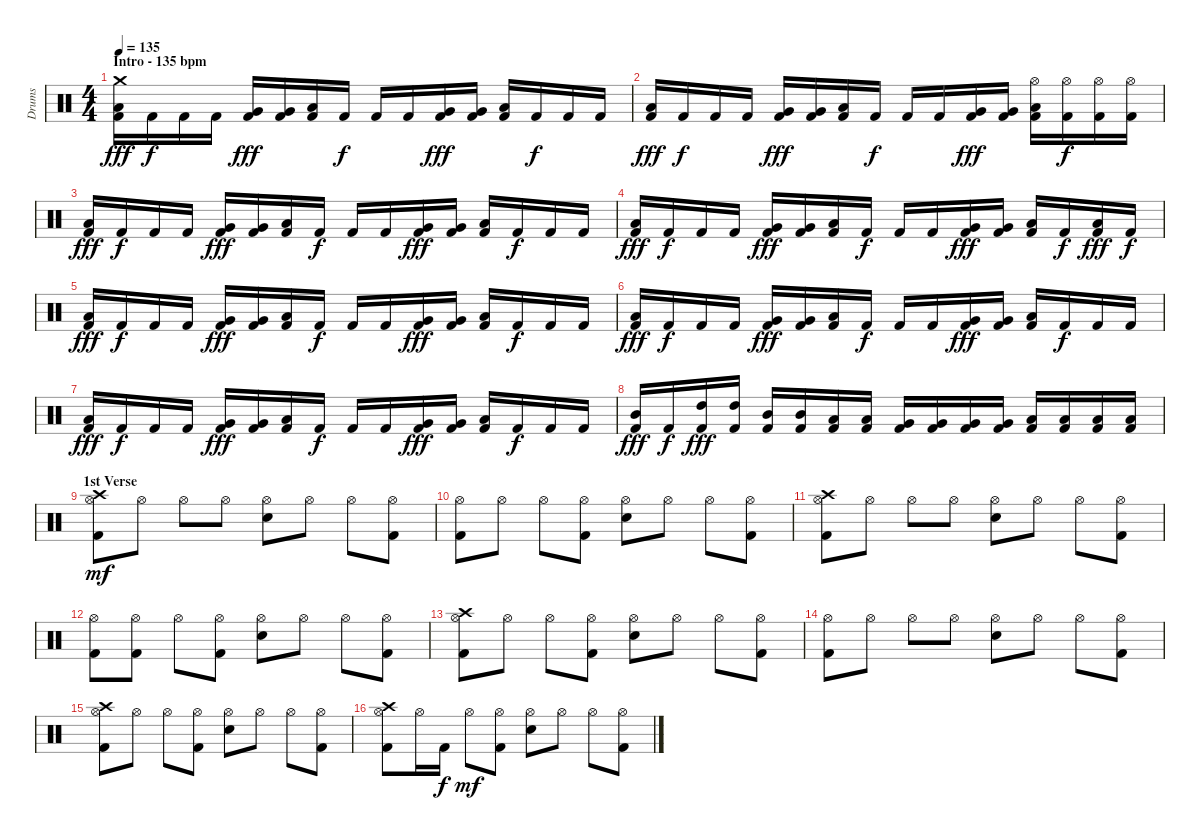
\track ("Drums" "Drums") {instrument percussion}
\staff {score}
\articulation defaults
\ts (4 4)
\section ("" "Intro - 135 bpm")
\tempo 135
\clef neutral
\ks c
("Kick (hit) 2" "Low Tom (hit)" "Crash medium (hit)").16{dy fff} "Kick (hit) 2".16{dy f} "Kick (hit) 2".16 "Kick (hit) 2".16 ("Kick (hit) 2" "Very Low Tom (hit)").16{dy fff} ("Kick (hit) 2" "Very Low Tom (hit)").16 ("Kick (hit) 2" "Low Tom (hit)").16 "Kick (hit) 2".16{dy f} "Kick (hit) 2".16 "Kick (hit) 2".16 ("Kick (hit) 2" "Very Low Tom (hit)").16{dy fff} ("Kick (hit) 2" "Very Low Tom (hit)").16 ("Kick (hit) 2" "Low Tom (hit)").16 "Kick (hit) 2".16{dy f} "Kick (hit) 2".16 "Kick (hit) 2".16 |
("Kick (hit) 2" "Low Tom (hit)").16{dy fff} "Kick (hit) 2".16{dy f} "Kick (hit) 2".16 "Kick (hit) 2".16 ("Kick (hit) 2" "Very Low Tom (hit)").16{dy fff} ("Kick (hit) 2" "Very Low Tom (hit)").16 ("Kick (hit) 2" "Low Tom (hit)").16 "Kick (hit) 2".16{dy f} "Kick (hit) 2".16 "Kick (hit) 2".16 ("Kick (hit) 2" "Very Low Tom (hit)").16{dy fff} ("Kick (hit) 2" "Very Low Tom (hit)").16 ("Kick (hit) 2" "Low Tom (hit)" "Hi-Hat (open)").16 ("Kick (hit) 2" "Hi-Hat (open)").16{dy f} ("Kick (hit) 2" "Hi-Hat (open)").16 ("Kick (hit) 2" "Hi-Hat (open)").16 |
("Kick (hit) 2" "Low Tom (hit)").16{dy fff} "Kick (hit) 2".16{dy f} "Kick (hit) 2".16 "Kick (hit) 2".16 ("Kick (hit) 2" "Very Low Tom (hit)").16{dy fff} ("Kick (hit) 2" "Very Low Tom (hit)").16 ("Kick (hit) 2" "Low Tom (hit)").16 "Kick (hit) 2".16{dy f} "Kick (hit) 2".16 "Kick (hit) 2".16 ("Kick (hit) 2" "Very Low Tom (hit)").16{dy fff} ("Kick (hit) 2" "Very Low Tom (hit)").16 ("Kick (hit) 2" "Low Tom (hit)").16 "Kick (hit) 2".16{dy f} "Kick (hit) 2".16 "Kick (hit) 2".16 |
("Kick (hit) 2" "Low Tom (hit)").16{dy fff} "Kick (hit) 2".16{dy f} "Kick (hit) 2".16 "Kick (hit) 2".16 ("Kick (hit) 2" "Very Low Tom (hit)").16{dy fff} ("Kick (hit) 2" "Very Low Tom (hit)").16 ("Kick (hit) 2" "Low Tom (hit)").16 "Kick (hit) 2".16{dy f} "Kick (hit) 2".16 "Kick (hit) 2".16 ("Kick (hit) 2" "Very Low Tom (hit)").16{dy fff} ("Kick (hit) 2" "Very Low Tom (hit)").16 ("Kick (hit) 2" "Low Tom (hit)").16 "Kick (hit) 2".16{dy f} ("Kick (hit) 2" "Low Tom (hit)").16{dy fff} "Kick (hit) 2".16{dy f} |
("Kick (hit) 2" "Low Tom (hit)").16{dy fff} "Kick (hit) 2".16{dy f} "Kick (hit) 2".16 "Kick (hit) 2".16 ("Kick (hit) 2" "Very Low Tom (hit)").16{dy fff} ("Kick (hit) 2" "Very Low Tom (hit)").16 ("Kick (hit) 2" "Low Tom (hit)").16 "Kick (hit) 2".16{dy f} "Kick (hit) 2".16 "Kick (hit) 2".16 ("Kick (hit) 2" "Very Low Tom (hit)").16{dy fff} ("Kick (hit) 2" "Very Low Tom (hit)").16 ("Kick (hit) 2" "Low Tom (hit)").16 "Kick (hit) 2".16{dy f} "Kick (hit) 2".16 "Kick (hit) 2".16 |
("Kick (hit) 2" "Low Tom (hit)").16{dy fff} "Kick (hit) 2".16{dy f} "Kick (hit) 2".16 "Kick (hit) 2".16 ("Kick (hit) 2" "Very Low Tom (hit)").16{dy fff} ("Kick (hit) 2" "Very Low Tom (hit)").16 ("Kick (hit) 2" "Low Tom (hit)").16 "Kick (hit) 2".16{dy f} "Kick (hit) 2".16 "Kick (hit) 2".16 ("Kick (hit) 2" "Very Low Tom (hit)").16{dy fff} ("Kick (hit) 2" "Very Low Tom (hit)").16 ("Kick (hit) 2" "Low Tom (hit)").16 "Kick (hit) 2".16{dy f} "Kick (hit) 2".16 "Kick (hit) 2".16 |
("Kick (hit) 2" "Low Tom (hit)").16{dy fff} "Kick (hit) 2".16{dy f} "Kick (hit) 2".16 "Kick (hit) 2".16 ("Kick (hit) 2" "Very Low Tom (hit)").16{dy fff} ("Kick (hit) 2" "Very Low Tom (hit)").16 ("Kick (hit) 2" "Low Tom (hit)").16 "Kick (hit) 2".16{dy f} "Kick (hit) 2".16 "Kick (hit) 2".16 ("Kick (hit) 2" "Very Low Tom (hit)").16{dy fff} ("Kick (hit) 2" "Very Low Tom (hit)").16 ("Kick (hit) 2" "Low Tom (hit)").16 "Kick (hit) 2".16{dy f} "Kick (hit) 2".16 "Kick (hit) 2".16 |
("Kick (hit) 2" "Mid Tom (hit)").16{dy fff} "Kick (hit) 2".16{dy f} ("Kick (hit) 2" "High Tom (hit)").16{dy fff} ("Kick (hit) 2" "High Tom (hit)").16 ("Kick (hit) 2" "Mid Tom (hit)").16 ("Kick (hit) 2" "Mid Tom (hit)").16 ("Kick (hit) 2" "Low Tom (hit)").16 ("Kick (hit) 2" "Low Tom (hit)").16 ("Kick (hit) 2" "Very Low Tom (hit)").16 ("Kick (hit) 2" "Very Low Tom (hit)").16 ("Kick (hit) 2" "Very Low Tom (hit)").16 ("Kick (hit) 2" "Very Low Tom (hit)").16 ("Kick (hit) 2" "Low Floor Tom (hit)").16 ("Kick (hit) 2" "Low Floor Tom (hit)").16 ("Kick (hit) 2" "Low Floor Tom (hit)").16 ("Kick (hit) 2" "Low Floor Tom (hit)").16 |
\section ("" "1st Verse")
("Kick (hit) 2" "Hi-Hat (open)" "Crash high (hit)").8{dy mf} "Hi-Hat (open)".8 "Hi-Hat (open)".8 "Hi-Hat (open)".8 ("Snare (hit) 2" "Hi-Hat (open)").8 "Hi-Hat (open)".8 "Hi-Hat (open)".8 ("Kick (hit) 2" "Hi-Hat (open)").8 |
("Kick (hit) 2" "Hi-Hat (open)").8 "Hi-Hat (open)".8 "Hi-Hat (open)".8 ("Kick (hit) 2" "Hi-Hat (open)").8 ("Snare (hit) 2" "Hi-Hat (open)").8 "Hi-Hat (open)".8 "Hi-Hat (open)".8 ("Kick (hit) 2" "Hi-Hat (open)").8 |
("Kick (hit) 2" "Hi-Hat (open)" "Crash high (hit)").8 "Hi-Hat (open)".8 "Hi-Hat (open)".8 "Hi-Hat (open)".8 ("Snare (hit) 2" "Hi-Hat (open)").8 "Hi-Hat (open)".8 "Hi-Hat (open)".8 ("Kick (hit) 2" "Hi-Hat (open)").8 |
("Kick (hit) 2" "Hi-Hat (open)").8 ("Kick (hit) 2" "Hi-Hat (open)").8 "Hi-Hat (open)".8 ("Kick (hit) 2" "Hi-Hat (open)").8 ("Snare (hit) 2" "Hi-Hat (open)").8 "Hi-Hat (open)".8 "Hi-Hat (open)".8 ("Kick (hit) 2" "Hi-Hat (open)").8 |
("Kick (hit) 2" "Hi-Hat (open)" "Crash high (hit)").8 "Hi-Hat (open)".8 "Hi-Hat (open)".8 ("Kick (hit) 2" "Hi-Hat (open)").8 ("Snare (hit) 2" "Hi-Hat (open)").8 "Hi-Hat (open)".8 "Hi-Hat (open)".8 ("Kick (hit) 2" "Hi-Hat (open)").8 |
("Kick (hit) 2" "Hi-Hat (open)").8 "Hi-Hat (open)".8 "Hi-Hat (open)".8 "Hi-Hat (open)".8 ("Snare (hit) 2" "Hi-Hat (open)").8 "Hi-Hat (open)".8 "Hi-Hat (open)".8 ("Kick (hit) 2" "Hi-Hat (open)").8 |
("Kick (hit) 2" "Hi-Hat (open)" "Crash high (hit)").8 "Hi-Hat (open)".8 "Hi-Hat (open)".8 ("Kick (hit) 2" "Hi-Hat (open)").8 ("Snare (hit) 2" "Hi-Hat (open)").8 "Hi-Hat (open)".8 "Hi-Hat (open)".8 ("Kick (hit) 2" "Hi-Hat (open)").8 |
("Kick (hit) 2" "Hi-Hat (open)" "Crash high (hit)").8 "Hi-Hat (open)".16 "Kick (hit) 2".16{dy f} "Hi-Hat (open)".8{dy mf} ("Kick (hit) 2" "Hi-Hat (open)").8 ("Snare (hit) 2" "Hi-Hat (open)").8 "Hi-Hat (open)".8 "Hi-Hat (open)".8 ("Kick (hit) 2" "Hi-Hat (open)").8
